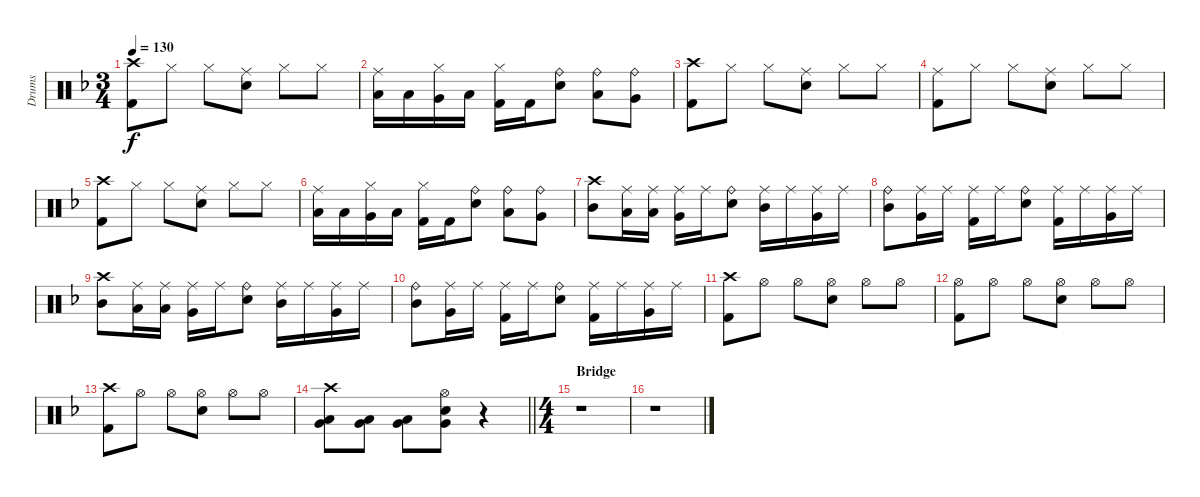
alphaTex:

\track ("Drums" "Drums") {instrument percussion}
\staff {score}
\articulation defaults
\ts (3 4)
\tempo 130
\clef neutral
\ks dminor
("Kick (hit) 2" "Crash high (hit)").8{dy f} "Hi-Hat (closed)".8 "Hi-Hat (closed)".8 ("Snare (hit) 2" "Ride (middle)").8 "Hi-Hat (closed)".8 "Hi-Hat (closed)".8 |
("Ride (middle)" "Low Tom (hit)").16 "Low Tom (hit)".16 ("Hi-Hat (closed)" "Very Low Tom (hit)").16 "Low Floor Tom (hit)".16 ("Kick (hit) 2" "Hi-Hat (closed)").16 "Kick (hit) 2".16 ("Ride (bell)" "Snare (hit) 2").8 ("Ride (bell)" "Low Tom (hit)").8 ("Ride (bell)" "Very Low Tom (hit)").8 |
("Kick (hit) 2" "Crash high (hit)").8 "Hi-Hat (closed)".8 "Hi-Hat (closed)".8 ("Snare (hit) 2" "Ride (middle)").8 "Hi-Hat (closed)".8 "Hi-Hat (closed)".8 |
("Kick (hit) 2" "Ride (middle)").8 "Hi-Hat (closed)".8 "Hi-Hat (closed)".8 ("Snare (hit) 2" "Ride (middle)").8 "Hi-Hat (closed)".8 "Hi-Hat (closed)".8 |
("Kick (hit) 2" "Crash high (hit)").8 "Hi-Hat (closed)".8 "Hi-Hat (closed)".8 ("Snare (hit) 2" "Ride (middle)").8 "Hi-Hat (closed)".8 "Hi-Hat (closed)".8 |
("Ride (middle)" "Low Tom (hit)").16 "Low Tom (hit)".16 ("Hi-Hat (closed)" "Very Low Tom (hit)").16 "Low Floor Tom (hit)".16 ("Kick (hit) 2" "Hi-Hat (closed)").16 "Kick (hit) 2".16 ("Ride (bell)" "Snare (hit) 2").8 ("Ride (bell)" "Low Tom (hit)").8 ("Ride (bell)" "Very Low Tom (hit)").8 |
("Crash high (hit)" "Mid Tom (hit)").8 ("Ride (middle)" "Low Tom (hit)").16 ("Ride (middle)" "Low Tom (hit)").16 ("Ride (middle)" "Very Low Tom (hit)").16 "Ride (middle)".16 ("Ride (bell)" "Snare (hit) 2").8 ("Ride (middle)" "Mid Tom (hit)").16 "Ride (middle)".16 ("Ride (middle)" "Very Low Tom (hit)").16 "Ride (middle)".16 |
("Ride (bell)" "Mid Tom (hit)").8 ("Ride (middle)" "Very Low Tom (hit)").16 "Ride (middle)".16 ("Ride (middle)" "Kick (hit) 2").16 "Ride (middle)".16 ("Ride (bell)" "Snare (hit) 2").8 ("Ride (middle)" "Kick (hit) 2").16 "Ride (middle)".16 ("Ride (middle)" "Very Low Tom (hit)").16 "Ride (middle)".16 |
("Crash high (hit)" "Mid Tom (hit)").8 ("Ride (middle)" "Low Tom (hit)").16 ("Ride (middle)" "Low Tom (hit)").16 ("Ride (middle)" "Very Low Tom (hit)").16 "Ride (middle)".16 ("Ride (bell)" "Snare (hit) 2").8 ("Ride (middle)" "Mid Tom (hit)").16 "Ride (middle)".16 ("Ride (middle)" "Very Low Tom (hit)").16 "Ride (middle)".16 |
("Ride (bell)" "Mid Tom (hit)").8 ("Ride (middle)" "Very Low Tom (hit)").16 "Ride (middle)".16 ("Ride (middle)" "Kick (hit) 2").16 "Ride (middle)".16 ("Ride (bell)" "Snare (hit) 2").8 ("Ride (middle)" "Kick (hit) 2").16 "Ride (middle)".16 ("Ride (middle)" "Very Low Tom (hit)").16 "Ride (middle)".16 |
("Kick (hit) 2" "Crash high (hit)").8 "Hi-Hat (open)".8 "Hi-Hat (open)".8 ("Snare (hit) 2" "Hi-Hat (open)").8 "Hi-Hat (open)".8 "Hi-Hat (open)".8 |
("Kick (hit) 2" "Hi-Hat (open)").8 "Hi-Hat (open)".8 "Hi-Hat (open)".8 ("Snare (hit) 2" "Hi-Hat (open)").8 "Hi-Hat (open)".8 "Hi-Hat (open)".8 |
("Kick (hit) 2" "Crash high (hit)").8 "Hi-Hat (open)".8 "Hi-Hat (open)".8 ("Snare (hit) 2" "Hi-Hat (open)").8 "Hi-Hat (open)".8 "Hi-Hat (open)".8 |
\barLineRight lightlight
("Very Low Tom (hit)" "Low Tom (hit)" "Crash high (hit)").8 ("Low Tom (hit)" "Very Low Tom (hit)").8 ("Very Low Tom (hit)" "Low Tom (hit)").8 ("Snare (hit) 2" "Very Low Tom (hit)" "Hi-Hat (open)").8 r.4 |
\ts (4 4)
\section ("" "Bridge")
r.1 |
r.1
